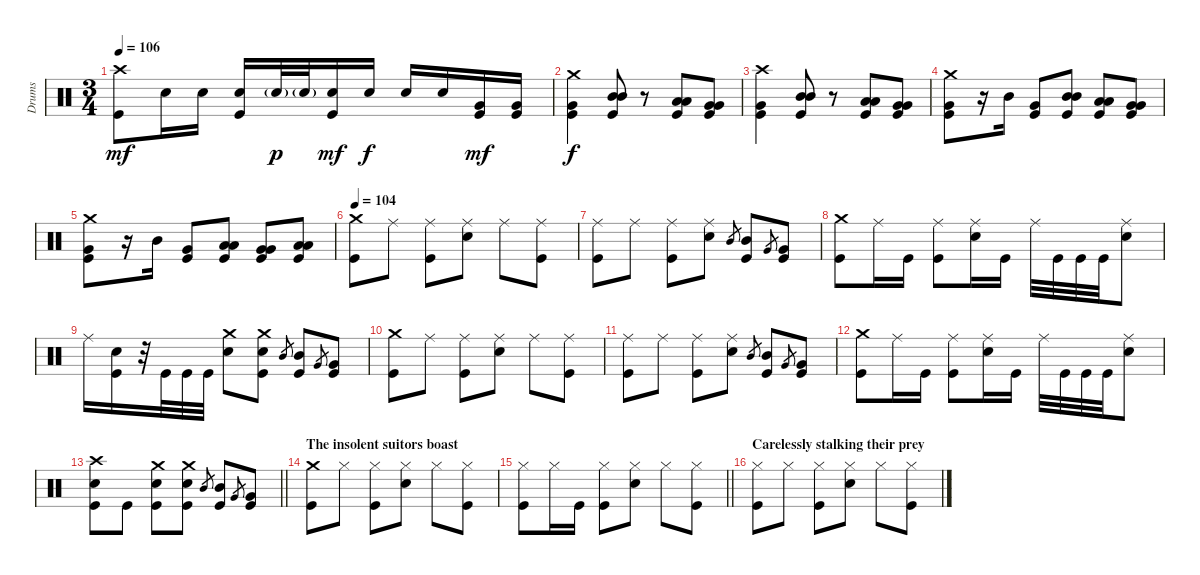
\track ("Drums" "Drums") {instrument percussion}
\staff {score}
\articulation defaults
\ts (3 4)
\tempo 106
\clef neutral
\ks c
("Crash high (hit)" "Kick (hit)").8{dy mf} "Snare (hit) 2".16 "Snare (hit) 2".16 ("Snare (hit) 2" "Kick (hit)").16 "Snare (hit) 2"{g}.32{dy p} "Snare (hit) 2"{g}.32 ("Snare (hit) 2" "Kick (hit)").16{dy mf} "Snare (hit) 2".16{dy f} "Snare (hit) 2".16 "Snare (hit) 2".16 ("Very Low Tom (hit)" "Kick (hit)").16{dy mf} ("Very Low Tom (hit)" "Kick (hit)").16 |
("Crash medium (hit)" "Very Low Tom (hit)" "Kick (hit)").4{dy f} ("Mid Tom (hit)" "Mid Tom (hit)" "Kick (hit)").8 r.8 ("Low Tom (hit)" "Low Tom (hit)" "Kick (hit)").8 ("Very Low Tom (hit)" "Very Low Tom (hit)" "Kick (hit)").8 |
("Crash high (hit)" "Very Low Tom (hit)" "Kick (hit)").4 ("Mid Tom (hit)" "Mid Tom (hit)" "Kick (hit)").8 r.8 ("Low Tom (hit)" "Low Tom (hit)" "Kick (hit)").8 ("Very Low Tom (hit)" "Very Low Tom (hit)" "Kick (hit)").8 |
("Crash medium (hit)" "Very Low Tom (hit)" "Kick (hit)").8 r.16 "Mid Tom (hit)".16 ("Very Low Tom (hit)" "Kick (hit)").8 ("Mid Tom (hit)" "Mid Tom (hit)" "Kick (hit)").8 ("Low Tom (hit)" "Low Tom (hit)" "Kick (hit)").8 ("Very Low Tom (hit)" "Very Low Tom (hit)" "Kick (hit)").8 |
("Crash medium (hit)" "Very Low Tom (hit)" "Kick (hit)").8 r.16 "Mid Tom (hit)".16 ("Very Low Tom (hit)" "Kick (hit)").8 ("Low Tom (hit)" "Low Tom (hit)" "Kick (hit)").8 ("Very Low Tom (hit)" "Very Low Tom (hit)" "Kick (hit)").8 ("Low Floor Tom (hit)" "Low Floor Tom (hit)" "Kick (hit)").8 |
\tempo 104
("Crash medium (hit)" "Kick (hit)").8 "Ride (middle)".8 ("Ride (middle)" "Kick (hit)").8 ("Ride (middle)" "Snare (hit) 2").8 "Ride (middle)".8 ("Ride (middle)" "Kick (hit)").8 |
("Ride (middle)" "Kick (hit)").8 "Ride (middle)".8 ("Ride (middle)" "Kick (hit)").8 ("Ride (middle)" "Snare (hit) 2").8 "Mid Tom (hit)".8{gr} ("Mid Tom (hit)" "Kick (hit)").8 "Very Low Tom (hit)".8{gr} ("Very Low Tom (hit)" "Kick (hit)").8 |
("Crash medium (hit)" "Kick (hit)").8 "Ride (middle)".16 "Kick (hit)".16 ("Ride (middle)" "Kick (hit)").8 ("Ride (middle)" "Snare (hit) 2").16 "Kick (hit)".16 "Ride (middle)".32 "Kick (hit)".32 "Kick (hit)".32 "Kick (hit)".32 ("Ride (middle)" "Snare (hit) 2").8 |
"Ride (middle)".16 ("Snare (hit) 2" "Kick (hit)").16 r.32 "Kick (hit)".32 "Kick (hit)".32 "Kick (hit)".32 ("Crash medium (hit)" "Snare (hit) 2").8 ("Crash medium (hit)" "Snare (hit) 2" "Kick (hit)").8 "Mid Tom (hit)".8{gr} ("Mid Tom (hit)" "Kick (hit)").8 "Very Low Tom (hit)".8{gr} ("Very Low Tom (hit)" "Kick (hit)").8 |
("Crash medium (hit)" "Kick (hit)").8 "Ride (middle)".8 ("Ride (middle)" "Kick (hit)").8 ("Ride (middle)" "Snare (hit) 2").8 "Ride (middle)".8 ("Ride (middle)" "Kick (hit)").8 |
("Ride (middle)" "Kick (hit)").8 "Ride (middle)".8 ("Ride (middle)" "Kick (hit)").8 ("Ride (middle)" "Snare (hit) 2").8 "Mid Tom (hit)".8{gr} ("Mid Tom (hit)" "Kick (hit)").8 "Very Low Tom (hit)".8{gr} ("Very Low Tom (hit)" "Kick (hit)").8 |
("Crash medium (hit)" "Kick (hit)").8 "Ride (middle)".16 "Kick (hit)".16 ("Ride (middle)" "Kick (hit)").8 ("Ride (middle)" "Snare (hit) 2").16 "Kick (hit)".16 "Ride (middle)".32 "Kick (hit)".32 "Kick (hit)".32 "Kick (hit)".32 ("Ride (middle)" "Snare (hit) 2").8 |
\barLineRight lightlight
("Crash high (hit)" "Snare (hit) 2" "Kick (hit)").8 "Kick (hit)".8 ("Crash medium (hit)" "Snare (hit) 2" "Kick (hit)").8 ("Crash medium (hit)" "Snare (hit) 2" "Kick (hit)").8 "Mid Tom (hit)".8{gr} ("Mid Tom (hit)" "Kick (hit)").8 "Very Low Tom (hit)".8{gr} ("Very Low Tom (hit)" "Kick (hit)").8 |
\section ("" "The insolent suitors boast")
("Crash medium (hit)" "Kick (hit)").8 "Hi-Hat (closed)".8 ("Hi-Hat (closed)" "Kick (hit)").8 ("Hi-Hat (closed)" "Snare (hit) 2").8 "Hi-Hat (closed)".8 ("Hi-Hat (closed)" "Kick (hit)").8 |
\barLineRight lightlight
("Hi-Hat (closed)" "Kick (hit)").8 "Hi-Hat (closed)".16 "Kick (hit)".16 ("Hi-Hat (closed)" "Kick (hit)").8 ("Hi-Hat (closed)" "Snare (hit) 2").8 "Hi-Hat (closed)".8 ("Hi-Hat (closed)" "Kick (hit)").8 |
\section ("" "Carelessly stalking their prey")
("Hi-Hat (closed)" "Kick (hit)").8 "Hi-Hat (closed)".8 ("Hi-Hat (closed)" "Kick (hit)").8 ("Hi-Hat (closed)" "Snare (hit) 2").8 "Hi-Hat (closed)".8 ("Hi-Hat (closed)" "Kick (hit)").8
